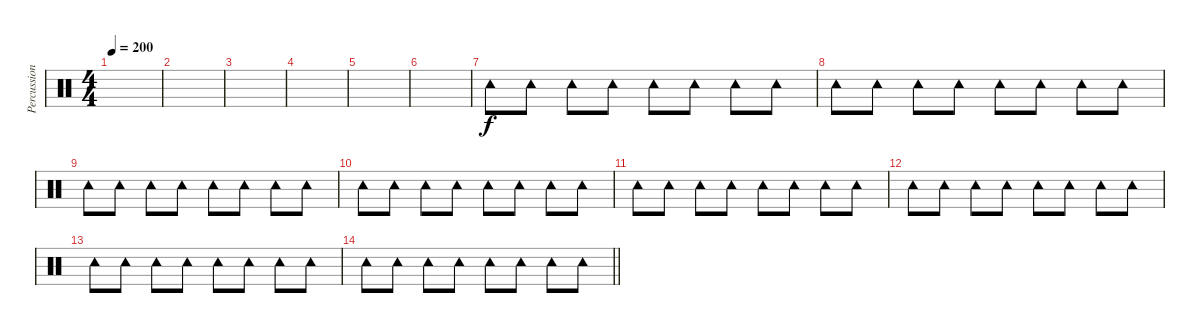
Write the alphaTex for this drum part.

\track ("Percussion" "Percussion") {instrument percussion}
\staff {score}
\articulation defaults
\ts (4 4)
\tempo 200
\clef neutral
\ks c
|
|
|
|
|
|
"Tambourine (hit)".8{volume 4} "Tambourine (hit)".8 "Tambourine (hit)".8 "Tambourine (hit)".8 "Tambourine (hit)".8 "Tambourine (hit)".8 "Tambourine (hit)".8 "Tambourine (hit)".8 |
"Tambourine (hit)".8 "Tambourine (hit)".8 "Tambourine (hit)".8 "Tambourine (hit)".8 "Tambourine (hit)".8 "Tambourine (hit)".8 "Tambourine (hit)".8 "Tambourine (hit)".8 |
"Tambourine (hit)".8 "Tambourine (hit)".8 "Tambourine (hit)".8 "Tambourine (hit)".8 "Tambourine (hit)".8 "Tambourine (hit)".8 "Tambourine (hit)".8 "Tambourine (hit)".8 |
"Tambourine (hit)".8 "Tambourine (hit)".8 "Tambourine (hit)".8 "Tambourine (hit)".8 "Tambourine (hit)".8 "Tambourine (hit)".8 "Tambourine (hit)".8 "Tambourine (hit)".8 |
"Tambourine (hit)".8 "Tambourine (hit)".8 "Tambourine (hit)".8 "Tambourine (hit)".8 "Tambourine (hit)".8 "Tambourine (hit)".8 "Tambourine (hit)".8 "Tambourine (hit)".8 |
"Tambourine (hit)".8 "Tambourine (hit)".8 "Tambourine (hit)".8 "Tambourine (hit)".8 "Tambourine (hit)".8 "Tambourine (hit)".8 "Tambourine (hit)".8 "Tambourine (hit)".8 |
"Tambourine (hit)".8 "Tambourine (hit)".8 "Tambourine (hit)".8 "Tambourine (hit)".8 "Tambourine (hit)".8 "Tambourine (hit)".8 "Tambourine (hit)".8 "Tambourine (hit)".8 |
\barLineRight lightlight "Tambourine (hit)".8 "Tambourine (hit)".8 "Tambourine (hit)".8 "Tambourine (hit)".8 "Tambourine (hit)".8 "Tambourine (hit)".8 "Tambourine (hit)".8 "Tambourine (hit)".8
